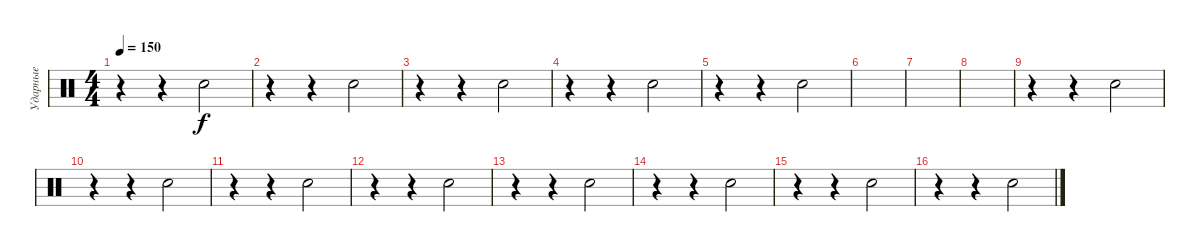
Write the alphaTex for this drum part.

\track ("Ударные" "Ударные") {instrument percussion}
\staff {score}
\articulation defaults
\ts (4 4)
\tempo 150
\clef neutral
\ks c
r.4{dy f} r.4 "Hand Clap (hit)".2 |
r.4 r.4 "Hand Clap (hit)".2 |
r.4 r.4 "Hand Clap (hit)".2 |
r.4 r.4 "Hand Clap (hit)".2 |
r.4 r.4 "Hand Clap (hit)".2 |
|
|
|
r.4 r.4 "Hand Clap (hit)".2 |
r.4 r.4 "Hand Clap (hit)".2 |
r.4 r.4 "Hand Clap (hit)".2 |
r.4 r.4 "Hand Clap (hit)".2 |
r.4 r.4 "Hand Clap (hit)".2 |
r.4 r.4 "Hand Clap (hit)".2 |
r.4 r.4 "Hand Clap (hit)".2 |
r.4 r.4 "Hand Clap (hit)".2
